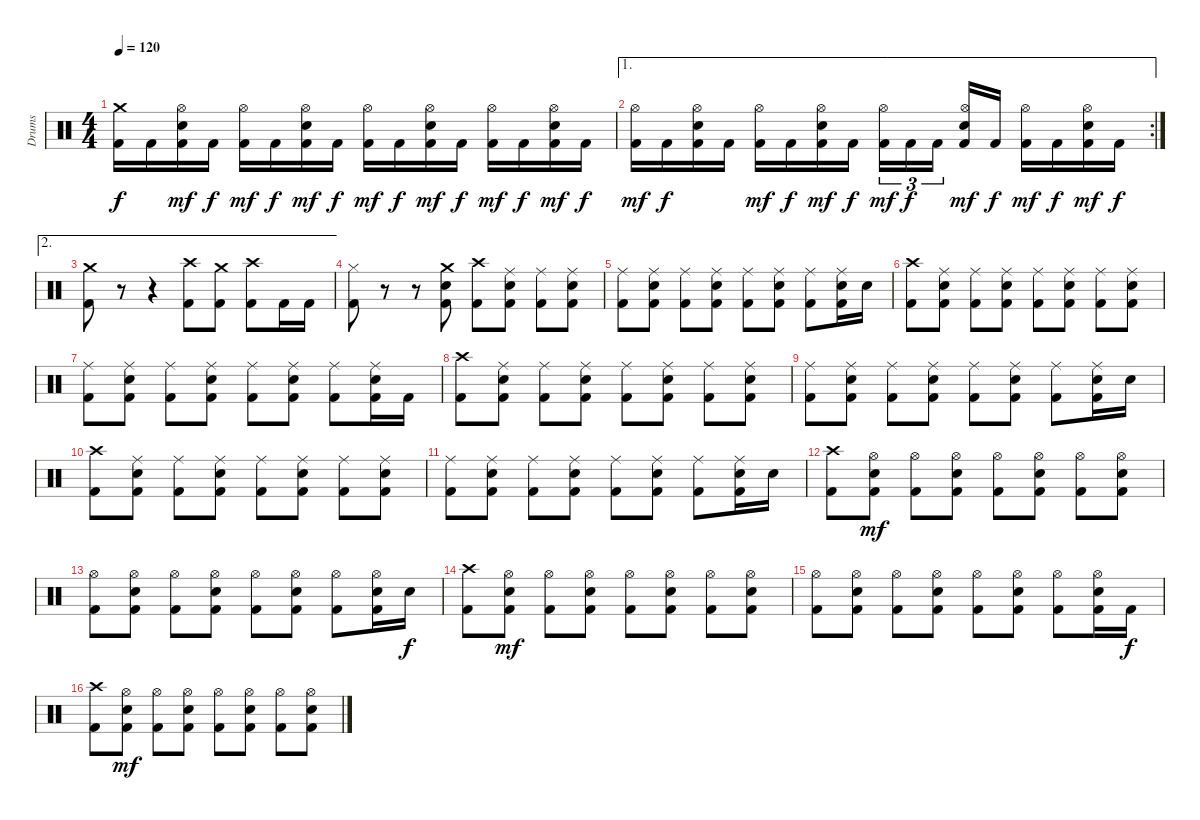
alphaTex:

\track ("Drums" "Drums") {instrument percussion}
\staff {score}
\articulation defaults
\ts (4 4)
\tempo 120
\clef neutral
\ks c
("Crash medium (hit)" "Kick (hit) 2").16{dy f} "Kick (hit) 2".16 ("Hi-Hat (open)" "Snare (hit) 2" "Kick (hit) 2").16{dy mf} "Kick (hit) 2".16{dy f} ("Hi-Hat (open)" "Kick (hit) 2").16{dy mf} "Kick (hit) 2".16{dy f} ("Hi-Hat (open)" "Snare (hit) 2" "Kick (hit) 2").16{dy mf} "Kick (hit) 2".16{dy f} ("Hi-Hat (open)" "Kick (hit) 2").16{dy mf} "Kick (hit) 2".16{dy f} ("Hi-Hat (open)" "Snare (hit) 2" "Kick (hit) 2").16{dy mf} "Kick (hit) 2".16{dy f} ("Hi-Hat (open)" "Kick (hit) 2").16{dy mf} "Kick (hit) 2".16{dy f} ("Hi-Hat (open)" "Snare (hit) 2" "Kick (hit) 2").16{dy mf} "Kick (hit) 2".16{dy f} |
\ae 1
\rc 2
("Hi-Hat (open)" "Kick (hit) 2").16{dy mf} "Kick (hit) 2".16{dy f} ("Hi-Hat (open)" "Snare (hit) 2" "Kick (hit) 2").16 "Kick (hit) 2".16 ("Hi-Hat (open)" "Kick (hit) 2").16{dy mf} "Kick (hit) 2".16{dy f} ("Hi-Hat (open)" "Snare (hit) 2" "Kick (hit) 2").16{dy mf} "Kick (hit) 2".16{dy f} ("Hi-Hat (open)" "Kick (hit) 2").16{tu (3 2) dy mf} "Kick (hit) 2".16{tu (3 2) dy f} "Kick (hit) 2".16{tu (3 2)} ("Hi-Hat (open)" "Snare (hit) 2" "Kick (hit) 2").16{dy mf} "Kick (hit) 2".16{dy f} ("Hi-Hat (open)" "Kick (hit) 2").16{dy mf} "Kick (hit) 2".16{dy f} ("Hi-Hat (open)" "Snare (hit) 2" "Kick (hit) 2").16{dy mf} "Kick (hit) 2".16{dy f} |
\ae 2
("Crash medium (hit)" "Kick (hit) 2").8 r.8 r.4 ("Crash high (hit)" "Kick (hit) 2").8 ("Crash medium (hit)" "Kick (hit) 2").8 ("Crash high (hit)" "Kick (hit) 2").8 "Kick (hit) 2".16 "Kick (hit) 2".16 |
("Hi-Hat (closed)" "Kick (hit) 2").8 r.8 r.8 ("Crash medium (hit)" "Snare (hit) 2" "Kick (hit) 2").8 ("Crash high (hit)" "Kick (hit) 2").8 ("Ride (middle)" "Snare (hit) 2" "Kick (hit) 2").8 ("Ride (middle)" "Kick (hit) 2").8 ("Ride (middle)" "Snare (hit) 2" "Kick (hit) 2").8 |
("Ride (middle)" "Kick (hit) 2").8 ("Ride (middle)" "Snare (hit) 2" "Kick (hit) 2").8 ("Ride (middle)" "Kick (hit) 2").8 ("Ride (middle)" "Snare (hit) 2" "Kick (hit) 2").8 ("Ride (middle)" "Kick (hit) 2").8 ("Ride (middle)" "Snare (hit) 2" "Kick (hit) 2").8 ("Ride (middle)" "Kick (hit) 2").8 ("Ride (middle)" "Snare (hit) 2" "Kick (hit) 2").16 "Snare (hit) 2".16 |
("Crash high (hit)" "Kick (hit) 2").8 ("Ride (middle)" "Snare (hit) 2" "Kick (hit) 2").8 ("Ride (middle)" "Kick (hit) 2").8 ("Ride (middle)" "Snare (hit) 2" "Kick (hit) 2").8 ("Ride (middle)" "Kick (hit) 2").8 ("Ride (middle)" "Snare (hit) 2" "Kick (hit) 2").8 ("Ride (middle)" "Kick (hit) 2").8 ("Ride (middle)" "Snare (hit) 2" "Kick (hit) 2").8 |
("Ride (middle)" "Kick (hit) 2").8 ("Ride (middle)" "Snare (hit) 2" "Kick (hit) 2").8 ("Ride (middle)" "Kick (hit) 2").8 ("Ride (middle)" "Snare (hit) 2" "Kick (hit) 2").8 ("Ride (middle)" "Kick (hit) 2").8 ("Ride (middle)" "Snare (hit) 2" "Kick (hit) 2").8 ("Ride (middle)" "Kick (hit) 2").8 ("Ride (middle)" "Snare (hit) 2" "Kick (hit) 2").16 "Kick (hit) 2".16 |
("Crash high (hit)" "Kick (hit) 2").8 ("Ride (middle)" "Snare (hit) 2" "Kick (hit) 2").8 ("Ride (middle)" "Kick (hit) 2").8 ("Ride (middle)" "Snare (hit) 2" "Kick (hit) 2").8 ("Ride (middle)" "Kick (hit) 2").8 ("Ride (middle)" "Snare (hit) 2" "Kick (hit) 2").8 ("Ride (middle)" "Kick (hit) 2").8 ("Ride (middle)" "Snare (hit) 2" "Kick (hit) 2").8 |
("Ride (middle)" "Kick (hit) 2").8 ("Ride (middle)" "Snare (hit) 2" "Kick (hit) 2").8 ("Ride (middle)" "Kick (hit) 2").8 ("Ride (middle)" "Snare (hit) 2" "Kick (hit) 2").8 ("Ride (middle)" "Kick (hit) 2").8 ("Ride (middle)" "Snare (hit) 2" "Kick (hit) 2").8 ("Ride (middle)" "Kick (hit) 2").8 ("Ride (middle)" "Snare (hit) 2" "Kick (hit) 2").16 "Snare (hit) 2".16 |
("Crash high (hit)" "Kick (hit) 2").8 ("Ride (middle)" "Snare (hit) 2" "Kick (hit) 2").8 ("Ride (middle)" "Kick (hit) 2").8 ("Ride (middle)" "Snare (hit) 2" "Kick (hit) 2").8 ("Ride (middle)" "Kick (hit) 2").8 ("Ride (middle)" "Snare (hit) 2" "Kick (hit) 2").8 ("Ride (middle)" "Kick (hit) 2").8 ("Ride (middle)" "Snare (hit) 2" "Kick (hit) 2").8 |
("Ride (middle)" "Kick (hit) 2").8 ("Ride (middle)" "Snare (hit) 2" "Kick (hit) 2").8 ("Ride (middle)" "Kick (hit) 2").8 ("Ride (middle)" "Snare (hit) 2" "Kick (hit) 2").8 ("Ride (middle)" "Kick (hit) 2").8 ("Ride (middle)" "Snare (hit) 2" "Kick (hit) 2").8 ("Ride (middle)" "Kick (hit) 2").8 ("Ride (middle)" "Snare (hit) 2" "Kick (hit) 2").16 "Snare (hit) 2".16 |
("Crash high (hit)" "Kick (hit) 2").8 ("Hi-Hat (open)" "Snare (hit) 2" "Kick (hit) 2").8{dy mf} ("Hi-Hat (open)" "Kick (hit) 2").8 ("Hi-Hat (open)" "Snare (hit) 2" "Kick (hit) 2").8 ("Hi-Hat (open)" "Kick (hit) 2").8 ("Hi-Hat (open)" "Snare (hit) 2" "Kick (hit) 2").8 ("Hi-Hat (open)" "Kick (hit) 2").8 ("Hi-Hat (open)" "Snare (hit) 2" "Kick (hit) 2").8 |
("Hi-Hat (open)" "Kick (hit) 2").8 ("Hi-Hat (open)" "Snare (hit) 2" "Kick (hit) 2").8 ("Hi-Hat (open)" "Kick (hit) 2").8 ("Hi-Hat (open)" "Snare (hit) 2" "Kick (hit) 2").8 ("Hi-Hat (open)" "Kick (hit) 2").8 ("Hi-Hat (open)" "Snare (hit) 2" "Kick (hit) 2").8 ("Hi-Hat (open)" "Kick (hit) 2").8 ("Hi-Hat (open)" "Snare (hit) 2" "Kick (hit) 2").16 "Snare (hit) 2".16{dy f} |
("Crash high (hit)" "Kick (hit) 2").8 ("Hi-Hat (open)" "Snare (hit) 2" "Kick (hit) 2").8{dy mf} ("Hi-Hat (open)" "Kick (hit) 2").8 ("Hi-Hat (open)" "Snare (hit) 2" "Kick (hit) 2").8 ("Hi-Hat (open)" "Kick (hit) 2").8 ("Hi-Hat (open)" "Snare (hit) 2" "Kick (hit) 2").8 ("Hi-Hat (open)" "Kick (hit) 2").8 ("Hi-Hat (open)" "Snare (hit) 2" "Kick (hit) 2").8 |
("Hi-Hat (open)" "Kick (hit) 2").8 ("Hi-Hat (open)" "Snare (hit) 2" "Kick (hit) 2").8 ("Hi-Hat (open)" "Kick (hit) 2").8 ("Hi-Hat (open)" "Snare (hit) 2" "Kick (hit) 2").8 ("Hi-Hat (open)" "Kick (hit) 2").8 ("Hi-Hat (open)" "Snare (hit) 2" "Kick (hit) 2").8 ("Hi-Hat (open)" "Kick (hit) 2").8 ("Hi-Hat (open)" "Snare (hit) 2" "Kick (hit) 2").16 "Kick (hit) 2".16{dy f} |
("Crash high (hit)" "Kick (hit) 2").8 ("Hi-Hat (open)" "Snare (hit) 2" "Kick (hit) 2").8{dy mf} ("Hi-Hat (open)" "Kick (hit) 2").8 ("Hi-Hat (open)" "Snare (hit) 2" "Kick (hit) 2").8 ("Hi-Hat (open)" "Kick (hit) 2").8 ("Hi-Hat (open)" "Snare (hit) 2" "Kick (hit) 2").8 ("Hi-Hat (open)" "Kick (hit) 2").8 ("Hi-Hat (open)" "Snare (hit) 2" "Kick (hit) 2").8
